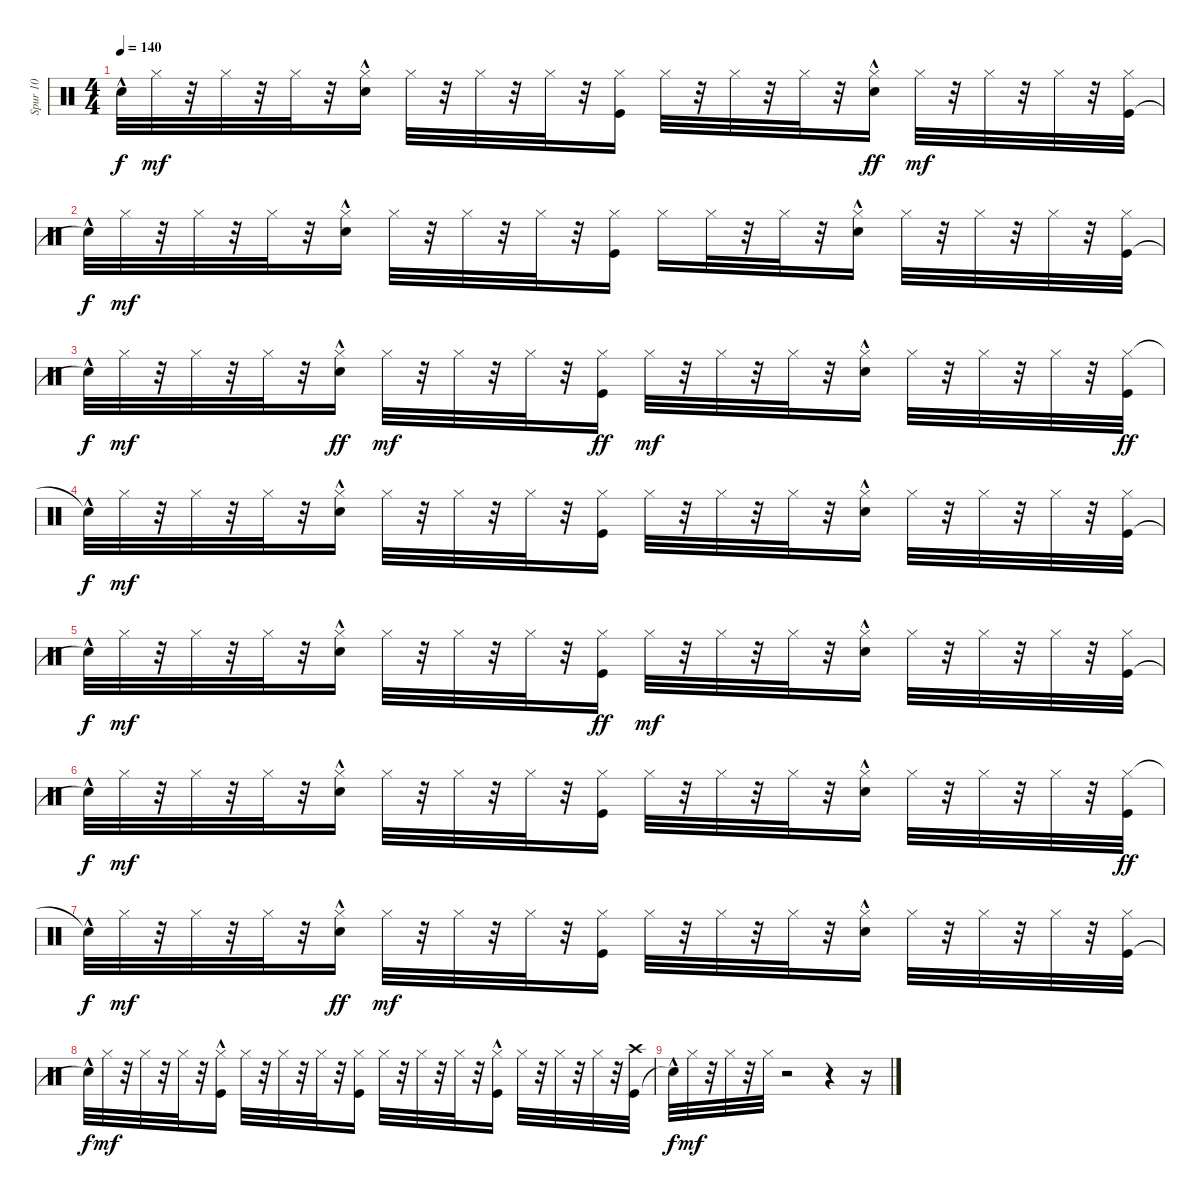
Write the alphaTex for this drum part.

\track ("Spur 10" "Spur 10") {instrument percussion}
\staff {score}
\articulation defaults
\ts (4 4)
\tempo 140
\clef neutral
\ks c "Snare (hit)"{hac t}.32{dy f} "Hi-Hat (closed)".32{dy mf}
r.32 "Hi-Hat (closed)".32 r.32 "Hi-Hat (closed)".32 r.32 ("Snare (hit) 2"{hac} "Hi-Hat (closed)").16 "Hi-Hat (closed)".32 r.32 "Hi-Hat (closed)".32 r.32 "Hi-Hat (closed)".32 r.32 ("Kick (hit)" "Hi-Hat (closed)").16 "Hi-Hat (closed)".32 r.32 "Hi-Hat (closed)".32 r.32 "Hi-Hat (closed)".32 r.32 ("Hi-Hat (closed)" "Snare (hit) 2"{hac}).16{dy ff} "Hi-Hat (closed)".32{dy mf} r.32 "Hi-Hat (closed)".32 r.32 "Hi-Hat (closed)".32 r.32 ("Kick (hit)" "Hi-Hat (closed)").32 |
"Snare (hit)"{hac t}.32{dy f} "Hi-Hat (closed)".32{dy mf} r.32 "Hi-Hat (closed)".32 r.32 "Hi-Hat (closed)".32 r.32 ("Snare (hit) 2"{hac} "Hi-Hat (closed)").16 "Hi-Hat (closed)".32 r.32 "Hi-Hat (closed)".32 r.32 "Hi-Hat (closed)".32 r.32 ("Kick (hit)" "Hi-Hat (closed)").16 "Hi-Hat (closed)".16 "Hi-Hat (closed)".32 r.32 "Hi-Hat (closed)".32 r.32 ("Snare (hit) 2"{hac} "Hi-Hat (closed)").16 "Hi-Hat (closed)".32 r.32 "Hi-Hat (closed)".32 r.32 "Hi-Hat (closed)".32 r.32 ("Kick (hit)" "Hi-Hat (closed)").32 |
"Snare (hit)"{hac t}.32{dy f} "Hi-Hat (closed)".32{dy mf} r.32 "Hi-Hat (closed)".32 r.32 "Hi-Hat (closed)".32 r.32 ("Hi-Hat (closed)" "Snare (hit) 2"{hac}).16{dy ff} "Hi-Hat (closed)".32{dy mf} r.32 "Hi-Hat (closed)".32 r.32 "Hi-Hat (closed)".32 r.32 ("Hi-Hat (closed)" "Kick (hit)").16{dy ff} "Hi-Hat (closed)".32{dy mf} r.32 "Hi-Hat (closed)".32 r.32 "Hi-Hat (closed)".32 r.32 ("Snare (hit) 2"{hac} "Hi-Hat (closed)").16 "Hi-Hat (closed)".32 r.32 "Hi-Hat (closed)".32 r.32 "Hi-Hat (closed)".32 r.32 ("Hi-Hat (closed)" "Kick (hit)").32{dy ff} |
"Snare (hit)"{hac t}.32{dy f} "Hi-Hat (closed)".32{dy mf} r.32 "Hi-Hat (closed)".32 r.32 "Hi-Hat (closed)".32 r.32 ("Snare (hit) 2"{hac} "Hi-Hat (closed)").16 "Hi-Hat (closed)".32 r.32 "Hi-Hat (closed)".32 r.32 "Hi-Hat (closed)".32 r.32 ("Kick (hit)" "Hi-Hat (closed)").16 "Hi-Hat (closed)".32 r.32 "Hi-Hat (closed)".32 r.32 "Hi-Hat (closed)".32 r.32 ("Snare (hit) 2"{hac} "Hi-Hat (closed)").16 "Hi-Hat (closed)".32 r.32 "Hi-Hat (closed)".32 r.32 "Hi-Hat (closed)".32 r.32 ("Kick (hit)" "Hi-Hat (closed)").32 |
"Snare (hit)"{hac t}.32{dy f} "Hi-Hat (closed)".32{dy mf} r.32 "Hi-Hat (closed)".32 r.32 "Hi-Hat (closed)".32 r.32 ("Snare (hit) 2"{hac} "Hi-Hat (closed)").16 "Hi-Hat (closed)".32 r.32 "Hi-Hat (closed)".32 r.32 "Hi-Hat (closed)".32 r.32 ("Hi-Hat (closed)" "Kick (hit)").16{dy ff} "Hi-Hat (closed)".32{dy mf} r.32 "Hi-Hat (closed)".32 r.32 "Hi-Hat (closed)".32 r.32 ("Snare (hit) 2"{hac} "Hi-Hat (closed)").16 "Hi-Hat (closed)".32 r.32 "Hi-Hat (closed)".32 r.32 "Hi-Hat (closed)".32 r.32 ("Kick (hit)" "Hi-Hat (closed)").32 |
"Snare (hit)"{hac t}.32{dy f} "Hi-Hat (closed)".32{dy mf} r.32 "Hi-Hat (closed)".32 r.32 "Hi-Hat (closed)".32 r.32 ("Snare (hit) 2"{hac} "Hi-Hat (closed)").16 "Hi-Hat (closed)".32 r.32 "Hi-Hat (closed)".32 r.32 "Hi-Hat (closed)".32 r.32 ("Kick (hit)" "Hi-Hat (closed)").16 "Hi-Hat (closed)".32 r.32 "Hi-Hat (closed)".32 r.32 "Hi-Hat (closed)".32 r.32 ("Snare (hit) 2"{hac} "Hi-Hat (closed)").16 "Hi-Hat (closed)".32 r.32 "Hi-Hat (closed)".32 r.32 "Hi-Hat (closed)".32 r.32 ("Hi-Hat (closed)" "Kick (hit)").32{dy ff} |
"Snare (hit)"{hac t}.32{dy f} "Hi-Hat (closed)".32{dy mf} r.32 "Hi-Hat (closed)".32 r.32 "Hi-Hat (closed)".32 r.32 ("Hi-Hat (closed)" "Snare (hit) 2"{hac}).16{dy ff} "Hi-Hat (closed)".32{dy mf} r.32 "Hi-Hat (closed)".32 r.32 "Hi-Hat (closed)".32 r.32 ("Kick (hit)" "Hi-Hat (closed)").16 "Hi-Hat (closed)".32 r.32 "Hi-Hat (closed)".32 r.32 "Hi-Hat (closed)".32 r.32 ("Snare (hit) 2"{hac} "Hi-Hat (closed)").16 "Hi-Hat (closed)".32 r.32 "Hi-Hat (closed)".32 r.32 "Hi-Hat (closed)".32 r.32 ("Kick (hit)" "Hi-Hat (closed)").32 |
"Snare (hit)"{hac t}.32{dy f} "Hi-Hat (closed)".32{dy mf} r.32 "Hi-Hat (closed)".32 r.32 "Hi-Hat (closed)".32 r.32 ("Kick (hit)"{hac} "Hi-Hat (closed)").16 "Hi-Hat (closed)".32 r.32 "Hi-Hat (closed)".32 r.32 "Hi-Hat (closed)".32 r.32 ("Kick (hit)" "Hi-Hat (closed)").16 "Hi-Hat (closed)".32 r.32 "Hi-Hat (closed)".32 r.32 "Hi-Hat (closed)".32 r.32 ("Kick (hit)"{hac} "Hi-Hat (closed)").16 "Hi-Hat (closed)".32 r.32 "Hi-Hat (closed)".32 r.32 "Hi-Hat (closed)".32 r.32 ("Kick (hit)" "Crash high (hit)").32 |
"Snare (hit)"{hac t}.32{dy f} "Hi-Hat (closed)".32{dy mf} r.32 "Hi-Hat (closed)".32 r.32 "Hi-Hat (closed)".32 r.2 r.4 r.16
